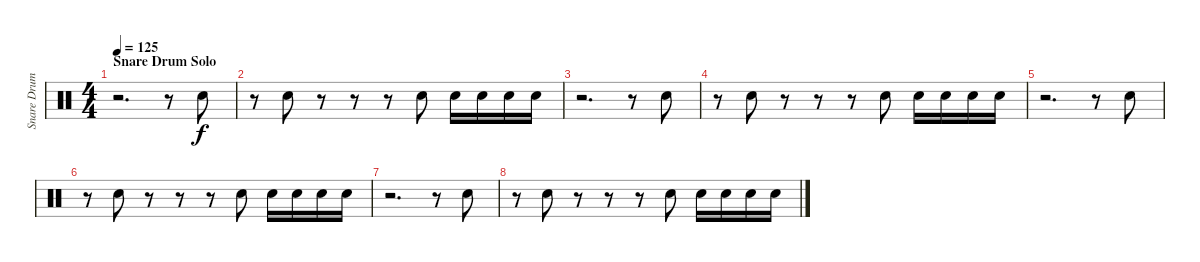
\track ("Snare Drum (Hooky, I think)" "Snare Drum") {instrument percussion}
\staff {score}
\articulation defaults
\ts (4 4)
\section ("" "Snare Drum Solo")
\tempo 125
\clef neutral
\ks c
r.2{d dy f} r.8 "Electric Snare (hit)".8 |
r.8 "Electric Snare (hit)".8 r.8 r.8 r.8 "Electric Snare (hit)".8 "Electric Snare (hit)".16 "Electric Snare (hit)".16 "Electric Snare (hit)".16 "Electric Snare (hit)".16 |
r.2{d} r.8 "Electric Snare (hit)".8 |
r.8 "Electric Snare (hit)".8 r.8 r.8 r.8 "Electric Snare (hit)".8 "Electric Snare (hit)".16 "Electric Snare (hit)".16 "Electric Snare (hit)".16 "Electric Snare (hit)".16 |
r.2{d} r.8 "Electric Snare (hit)".8 |
r.8 "Electric Snare (hit)".8 r.8 r.8 r.8 "Electric Snare (hit)".8 "Electric Snare (hit)".16 "Electric Snare (hit)".16 "Electric Snare (hit)".16 "Electric Snare (hit)".16 |
r.2{d} r.8 "Electric Snare (hit)".8 |
r.8 "Electric Snare (hit)".8 r.8 r.8 r.8 "Electric Snare (hit)".8 "Electric Snare (hit)".16 "Electric Snare (hit)".16 "Electric Snare (hit)".16 "Electric Snare (hit)".16
